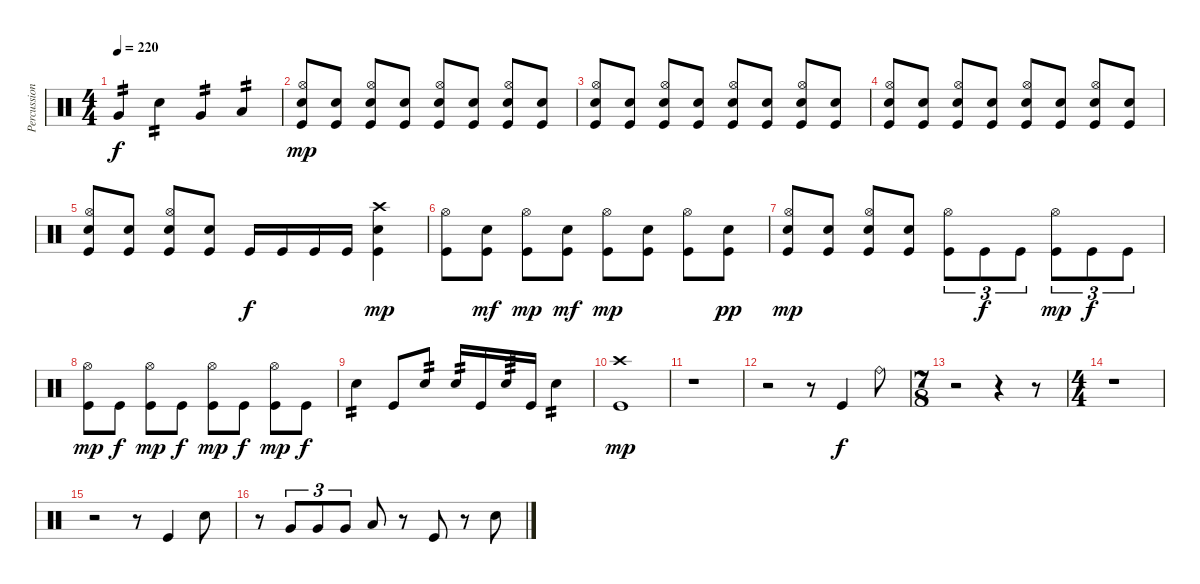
\track ("Percussion" "Percussion") {instrument percussion}
\staff {score}
\articulation defaults
\ts (4 4)
\tempo 220
\clef neutral
\ks c "Very Low Tom (hit)".4{tp 2 dy f} "Electric Snare (hit)".4{tp 2} "Very Low Tom (hit)".4{tp 2} "Low Floor Tom (hit)".4{tp 2}
|
("Hi-Hat (open)" "Electric Snare (hit)" "Kick (hit)").8{dy mp} ("Electric Snare (hit)" "Kick (hit)").8 ("Hi-Hat (open)" "Electric Snare (hit)" "Kick (hit)").8 ("Electric Snare (hit)" "Kick (hit)").8 ("Hi-Hat (open)" "Electric Snare (hit)" "Kick (hit)").8 ("Electric Snare (hit)" "Kick (hit)").8 ("Hi-Hat (open)" "Electric Snare (hit)" "Kick (hit)").8 ("Electric Snare (hit)" "Kick (hit)").8 |
("Hi-Hat (open)" "Electric Snare (hit)" "Kick (hit)").8 ("Electric Snare (hit)" "Kick (hit)").8 ("Hi-Hat (open)" "Electric Snare (hit)" "Kick (hit)").8 ("Electric Snare (hit)" "Kick (hit)").8 ("Hi-Hat (open)" "Electric Snare (hit)" "Kick (hit)").8 ("Electric Snare (hit)" "Kick (hit)").8 ("Hi-Hat (open)" "Electric Snare (hit)" "Kick (hit)").8 ("Electric Snare (hit)" "Kick (hit)").8 |
("Hi-Hat (open)" "Electric Snare (hit)" "Kick (hit)").8 ("Electric Snare (hit)" "Kick (hit)").8 ("Hi-Hat (open)" "Electric Snare (hit)" "Kick (hit)").8 ("Electric Snare (hit)" "Kick (hit)").8 ("Hi-Hat (open)" "Electric Snare (hit)" "Kick (hit)").8 ("Electric Snare (hit)" "Kick (hit)").8 ("Hi-Hat (open)" "Electric Snare (hit)" "Kick (hit)").8 ("Electric Snare (hit)" "Kick (hit)").8 |
("Hi-Hat (open)" "Electric Snare (hit)" "Kick (hit)").8 ("Electric Snare (hit)" "Kick (hit)").8 ("Hi-Hat (open)" "Electric Snare (hit)" "Kick (hit)").8 ("Electric Snare (hit)" "Kick (hit)").8 "Kick (hit)".16{dy f} "Kick (hit)".16 "Kick (hit)".16 "Kick (hit)".16 ("Crash high (hit)" "Electric Snare (hit)" "Kick (hit)").4{dy mp} |
("Hi-Hat (open)" "Kick (hit)").8 ("Electric Snare (hit)" "Kick (hit)").8{dy mf} ("Hi-Hat (open)" "Kick (hit)").8{dy mp} ("Electric Snare (hit)" "Kick (hit)").8{dy mf} ("Hi-Hat (open)" "Kick (hit)").8{dy mp} ("Electric Snare (hit)" "Kick (hit)").8 ("Hi-Hat (open)" "Kick (hit)").8 ("Electric Snare (hit)" "Kick (hit)").8{dy pp} |
("Hi-Hat (open)" "Electric Snare (hit)" "Kick (hit)").8{dy mp} ("Electric Snare (hit)" "Kick (hit)").8 ("Hi-Hat (open)" "Electric Snare (hit)" "Kick (hit)").8 ("Electric Snare (hit)" "Kick (hit)").8 ("Hi-Hat (open)" "Kick (hit)").8{tu (3 2)} "Kick (hit)".8{tu (3 2) dy f} "Kick (hit)".8{tu (3 2)} ("Hi-Hat (open)" "Kick (hit)").8{tu (3 2) dy mp} "Kick (hit)".8{tu (3 2) dy f} "Kick (hit)".8{tu (3 2)} |
("Hi-Hat (open)" "Kick (hit)").8{dy mp} "Kick (hit)".8{dy f} ("Hi-Hat (open)" "Kick (hit)").8{dy mp} "Kick (hit)".8{dy f} ("Hi-Hat (open)" "Kick (hit)").8{dy mp} "Kick (hit)".8{dy f} ("Hi-Hat (open)" "Kick (hit)").8{dy mp} "Kick (hit)".8{dy f} |
"Electric Snare (hit)".4{tp 2} "Kick (hit)".8 "Electric Snare (hit)".8{tp 2} "Electric Snare (hit)".16{tp 2} "Kick (hit)".16 "Electric Snare (hit)".16{tp 3} "Kick (hit)".16 "Electric Snare (hit)".4{tp 2} |
("Crash high (hit)" "Kick (hit)").1{dy mp} |
r.1 |
r.2 r.8 "Kick (hit)".4{dy f} "Ride (bell)".8 |
\ts (7 8)
r.2 r.4 r.8 |
\ts (4 4)
r.1 |
r.2 r.8 "Kick (hit)".4 "Electric Snare (hit)".8 |
r.8 "Very Low Tom (hit)".8{tu (3 2)} "Very Low Tom (hit)".8{tu (3 2)} "Very Low Tom (hit)".8{tu (3 2)} "Low Floor Tom (hit)".8 r.8 "Kick (hit)".8 r.8 "Electric Snare (hit)".8
